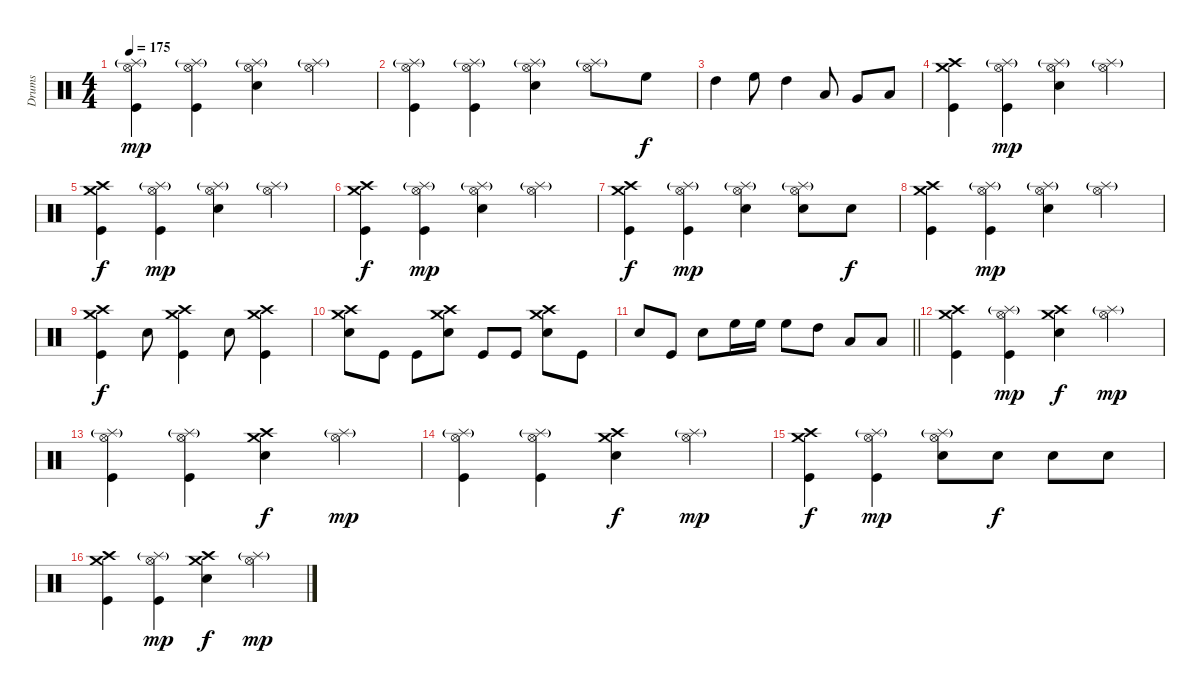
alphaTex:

\track ("Drums" "Drums") {instrument percussion}
\staff {score}
\articulation defaults
\ts (4 4)
\tempo 175
\clef neutral
\ks c
("Splash (hit)"{g} "Hi-Hat (open)" "Kick (hit)").4{dy mp} ("Splash (hit)"{g} "Hi-Hat (open)" "Kick (hit)").4 ("Splash (hit)"{g} "Hi-Hat (open)" "Electric Snare (hit)").4 ("Splash (hit)"{g} "Hi-Hat (open)").4 |
("Splash (hit)"{g} "Hi-Hat (open)" "Kick (hit)").4 ("Splash (hit)"{g} "Hi-Hat (open)" "Kick (hit)").4 ("Splash (hit)"{g} "Hi-Hat (open)" "Electric Snare (hit)").4 ("Splash (hit)"{g} "Hi-Hat (open)").8 "High Floor Tom (hit)".8{dy f} |
"High Tom (hit)".4 "High Floor Tom (hit)".8 "High Tom (hit)".4 "Low Tom (hit)".8 "Very Low Tom (hit)".8 "Low Floor Tom (hit)".8 |
("Crash medium (hit)" "Crash high (hit)" "Kick (hit)").4 ("Splash (hit)"{g} "Hi-Hat (open)" "Kick (hit)").4{dy mp} ("Splash (hit)"{g} "Hi-Hat (open)" "Electric Snare (hit)").4 ("Splash (hit)"{g} "Hi-Hat (open)").4 |
("Crash medium (hit)" "Crash high (hit)" "Kick (hit)").4{dy f} ("Splash (hit)"{g} "Hi-Hat (open)" "Kick (hit)").4{dy mp} ("Splash (hit)"{g} "Hi-Hat (open)" "Electric Snare (hit)").4 ("Splash (hit)"{g} "Hi-Hat (open)").4 |
("Crash medium (hit)" "Crash high (hit)" "Kick (hit)").4{dy f} ("Splash (hit)"{g} "Hi-Hat (open)" "Kick (hit)").4{dy mp} ("Splash (hit)"{g} "Hi-Hat (open)" "Electric Snare (hit)").4 ("Splash (hit)"{g} "Hi-Hat (open)").4 |
("Crash medium (hit)" "Crash high (hit)" "Kick (hit)").4{dy f} ("Splash (hit)"{g} "Hi-Hat (open)" "Kick (hit)").4{dy mp} ("Splash (hit)"{g} "Hi-Hat (open)" "Electric Snare (hit)").4 ("Splash (hit)"{g} "Hi-Hat (open)" "Electric Snare (hit)").8 "Electric Snare (hit)".8{dy f} |
("Crash medium (hit)" "Crash high (hit)" "Kick (hit)").4 ("Splash (hit)"{g} "Hi-Hat (open)" "Kick (hit)").4{dy mp} ("Splash (hit)"{g} "Hi-Hat (open)" "Electric Snare (hit)").4 ("Splash (hit)"{g} "Hi-Hat (open)").4 |
("Crash medium (hit)" "Crash high (hit)" "Kick (hit)").4{dy f} "Electric Snare (hit)".8 ("Crash medium (hit)" "Crash high (hit)" "Kick (hit)").4 "Electric Snare (hit)".8 ("Crash medium (hit)" "Crash high (hit)" "Kick (hit)").4 |
("Crash medium (hit)" "Crash high (hit)" "Electric Snare (hit)").8 "Kick (hit)".8 "Kick (hit)".8 ("Crash medium (hit)" "Crash high (hit)" "Electric Snare (hit)").8 "Kick (hit)".8 "Kick (hit)".8 ("Crash medium (hit)" "Crash high (hit)" "Electric Snare (hit)").8 "Kick (hit)".8 |
\barLineRight lightlight "Electric Snare (hit)".8 "Kick (hit)".8 "Electric Snare (hit)".8 "High Floor Tom (hit)".16 "High Floor Tom (hit)".16 "High Floor Tom (hit)".8 "High Tom (hit)".8 "Low Tom (hit)".8 "Low Floor Tom (hit)".8
|
("Crash medium (hit)" "Crash high (hit)" "Kick (hit)").4 ("Splash (hit)"{g} "Hi-Hat (open)" "Kick (hit)").4{dy mp} ("Crash medium (hit)" "Crash high (hit)" "Electric Snare (hit)").4{dy f} ("Splash (hit)"{g} "Hi-Hat (open)").4{dy mp} |
("Splash (hit)"{g} "Hi-Hat (open)" "Kick (hit)").4 ("Splash (hit)"{g} "Hi-Hat (open)" "Kick (hit)").4 ("Crash medium (hit)" "Crash high (hit)" "Electric Snare (hit)").4{dy f} ("Splash (hit)"{g} "Hi-Hat (open)").4{dy mp} |
("Splash (hit)"{g} "Hi-Hat (open)" "Kick (hit)").4 ("Splash (hit)"{g} "Hi-Hat (open)" "Kick (hit)").4 ("Crash medium (hit)" "Crash high (hit)" "Electric Snare (hit)").4{dy f} ("Splash (hit)"{g} "Hi-Hat (open)").4{dy mp} |
("Crash medium (hit)" "Crash high (hit)" "Kick (hit)").4{dy f} ("Splash (hit)"{g} "Hi-Hat (open)" "Kick (hit)").4{dy mp} ("Splash (hit)"{g} "Hi-Hat (open)" "Electric Snare (hit)").8 "Electric Snare (hit)".8{dy f} "Electric Snare (hit)".8 "Electric Snare (hit)".8 |
("Crash medium (hit)" "Crash high (hit)" "Kick (hit)").4 ("Splash (hit)"{g} "Hi-Hat (open)" "Kick (hit)").4{dy mp} ("Crash medium (hit)" "Crash high (hit)" "Electric Snare (hit)").4{dy f} ("Splash (hit)"{g} "Hi-Hat (open)").4{dy mp}
